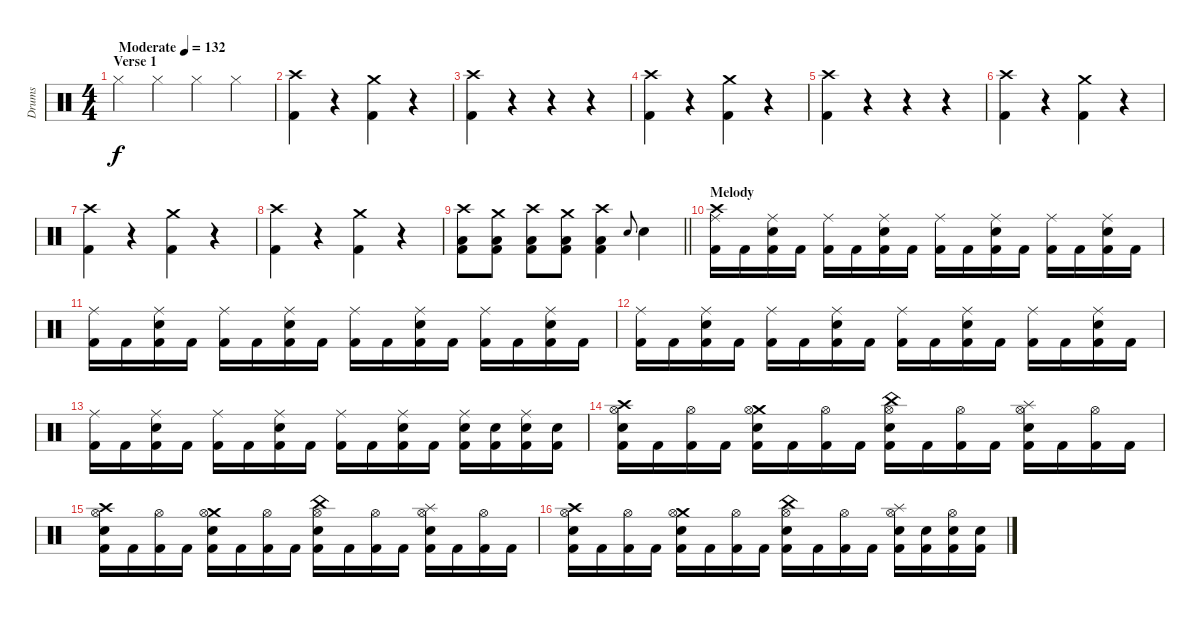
\track ("Drums" "Drums") {instrument percussion}
\staff {score}
\articulation defaults
\ts (4 4)
\section ("" "Verse 1")
\tempo (132 "Moderate")
\clef neutral
\ks c "Hi-Hat (closed)".4{dy f} "Hi-Hat (closed)".4 "Hi-Hat (closed)".4 "Hi-Hat (closed)".4
|
("Crash high (hit)" "Kick (hit) 2").4 r.4 ("Crash medium (hit)" "Kick (hit) 2").4 r.4 |
("Crash high (hit)" "Kick (hit) 2").4 r.4 r.4 r.4 |
("Crash high (hit)" "Kick (hit) 2").4 r.4 ("Crash medium (hit)" "Kick (hit) 2").4 r.4 |
("Crash high (hit)" "Kick (hit) 2").4 r.4 r.4 r.4 |
("Crash high (hit)" "Kick (hit) 2").4 r.4 ("Crash medium (hit)" "Kick (hit) 2").4 r.4 |
("Crash high (hit)" "Kick (hit) 2").4 r.4 ("Crash medium (hit)" "Kick (hit) 2").4 r.4 |
("Crash high (hit)" "Kick (hit) 2").4 r.4 ("Crash medium (hit)" "Kick (hit) 2").4 r.4 |
\barLineRight lightlight
("Crash high (hit)" "Low Floor Tom (hit)" "Kick (hit) 2").8 ("Crash medium (hit)" "Low Floor Tom (hit)" "Kick (hit) 2").8 ("Crash high (hit)" "Low Floor Tom (hit)" "Kick (hit) 2").8 ("Crash medium (hit)" "Low Floor Tom (hit)" "Kick (hit) 2").8 ("Crash high (hit)" "Low Floor Tom (hit)" "Kick (hit) 2").4 "Snare (hit) 2".8{gr onbeat} "Snare (hit) 2".4 |
\section ("" "Melody")
("Crash high (hit)" "Ride (middle)" "Kick (hit) 2").16 "Kick (hit) 2".16 ("Ride (middle)" "Snare (hit) 2" "Kick (hit) 2").16 "Kick (hit) 2".16 ("Ride (middle)" "Kick (hit) 2").16 "Kick (hit) 2".16 ("Ride (middle)" "Snare (hit) 2" "Kick (hit) 2").16 "Kick (hit) 2".16 ("Ride (middle)" "Kick (hit) 2").16 "Kick (hit) 2".16 ("Ride (middle)" "Snare (hit) 2" "Kick (hit) 2").16 "Kick (hit) 2".16 ("Ride (middle)" "Kick (hit) 2").16 "Kick (hit) 2".16 ("Ride (middle)" "Snare (hit) 2" "Kick (hit) 2").16 "Kick (hit) 2".16 |
("Ride (middle)" "Kick (hit) 2").16 "Kick (hit) 2".16 ("Ride (middle)" "Snare (hit) 2" "Kick (hit) 2").16 "Kick (hit) 2".16 ("Ride (middle)" "Kick (hit) 2").16 "Kick (hit) 2".16 ("Ride (middle)" "Snare (hit) 2" "Kick (hit) 2").16 "Kick (hit) 2".16 ("Ride (middle)" "Kick (hit) 2").16 "Kick (hit) 2".16 ("Ride (middle)" "Snare (hit) 2" "Kick (hit) 2").16 "Kick (hit) 2".16 ("Ride (middle)" "Kick (hit) 2").16 "Kick (hit) 2".16 ("Ride (middle)" "Snare (hit) 2" "Kick (hit) 2").16 "Kick (hit) 2".16 |
("Ride (middle)" "Kick (hit) 2").16 "Kick (hit) 2".16 ("Ride (middle)" "Snare (hit) 2" "Kick (hit) 2").16 "Kick (hit) 2".16 ("Ride (middle)" "Kick (hit) 2").16 "Kick (hit) 2".16 ("Ride (middle)" "Snare (hit) 2" "Kick (hit) 2").16 "Kick (hit) 2".16 ("Ride (middle)" "Kick (hit) 2").16 "Kick (hit) 2".16 ("Ride (middle)" "Snare (hit) 2" "Kick (hit) 2").16 "Kick (hit) 2".16 ("Ride (middle)" "Kick (hit) 2").16 "Kick (hit) 2".16 ("Ride (middle)" "Snare (hit) 2" "Kick (hit) 2").16 "Kick (hit) 2".16 |
("Ride (middle)" "Kick (hit) 2").16 "Kick (hit) 2".16 ("Ride (middle)" "Snare (hit) 2" "Kick (hit) 2").16 "Kick (hit) 2".16 ("Ride (middle)" "Kick (hit) 2").16 "Kick (hit) 2".16 ("Ride (middle)" "Snare (hit) 2" "Kick (hit) 2").16 "Kick (hit) 2".16 ("Ride (middle)" "Kick (hit) 2").16 "Kick (hit) 2".16 ("Ride (middle)" "Snare (hit) 2" "Kick (hit) 2").16 "Kick (hit) 2".16 ("Ride (middle)" "Snare (hit) 2" "Kick (hit) 2").16 ("Snare (hit) 2" "Kick (hit) 2").16 ("Ride (middle)" "Snare (hit) 2" "Kick (hit) 2").16 ("Snare (hit) 2" "Kick (hit) 2").16 |
("Crash high (hit)" "Hi-Hat (open)" "Snare (hit) 2" "Kick (hit) 2").16 "Kick (hit) 2".16 ("Hi-Hat (open)" "Kick (hit) 2").16 "Kick (hit) 2".16 ("Crash medium (hit)" "Hi-Hat (open)" "Snare (hit) 2" "Kick (hit) 2").16 "Kick (hit) 2".16 ("Hi-Hat (open)" "Kick (hit) 2").16 "Kick (hit) 2".16 ("China (hit)" "Hi-Hat (open)" "Snare (hit) 2" "Kick (hit) 2").16 "Kick (hit) 2".16 ("Hi-Hat (open)" "Kick (hit) 2").16 "Kick (hit) 2".16 ("Splash (hit)" "Hi-Hat (open)" "Snare (hit) 2" "Kick (hit) 2").16 "Kick (hit) 2".16 ("Hi-Hat (open)" "Kick (hit) 2").16 "Kick (hit) 2".16 |
("Crash high (hit)" "Hi-Hat (open)" "Snare (hit) 2" "Kick (hit) 2").16 "Kick (hit) 2".16 ("Hi-Hat (open)" "Kick (hit) 2").16 "Kick (hit) 2".16 ("Crash medium (hit)" "Hi-Hat (open)" "Snare (hit) 2" "Kick (hit) 2").16 "Kick (hit) 2".16 ("Hi-Hat (open)" "Kick (hit) 2").16 "Kick (hit) 2".16 ("China (hit)" "Hi-Hat (open)" "Snare (hit) 2" "Kick (hit) 2").16 "Kick (hit) 2".16 ("Hi-Hat (open)" "Kick (hit) 2").16 "Kick (hit) 2".16 ("Splash (hit)" "Hi-Hat (open)" "Snare (hit) 2" "Kick (hit) 2").16 "Kick (hit) 2".16 ("Hi-Hat (open)" "Kick (hit) 2").16 "Kick (hit) 2".16 |
("Crash high (hit)" "Hi-Hat (open)" "Snare (hit) 2" "Kick (hit) 2").16 "Kick (hit) 2".16 ("Hi-Hat (open)" "Kick (hit) 2").16 "Kick (hit) 2".16 ("Crash medium (hit)" "Hi-Hat (open)" "Snare (hit) 2" "Kick (hit) 2").16 "Kick (hit) 2".16 ("Hi-Hat (open)" "Kick (hit) 2").16 "Kick (hit) 2".16 ("China (hit)" "Hi-Hat (open)" "Snare (hit) 2" "Kick (hit) 2").16 "Kick (hit) 2".16 ("Hi-Hat (open)" "Kick (hit) 2").16 "Kick (hit) 2".16 ("Splash (hit)" "Hi-Hat (open)" "Snare (hit) 2" "Kick (hit) 2").16 ("Snare (hit) 2" "Kick (hit) 2").16 ("Hi-Hat (open)" "Snare (hit) 2" "Kick (hit) 2").16 ("Snare (hit) 2" "Kick (hit) 2").16
